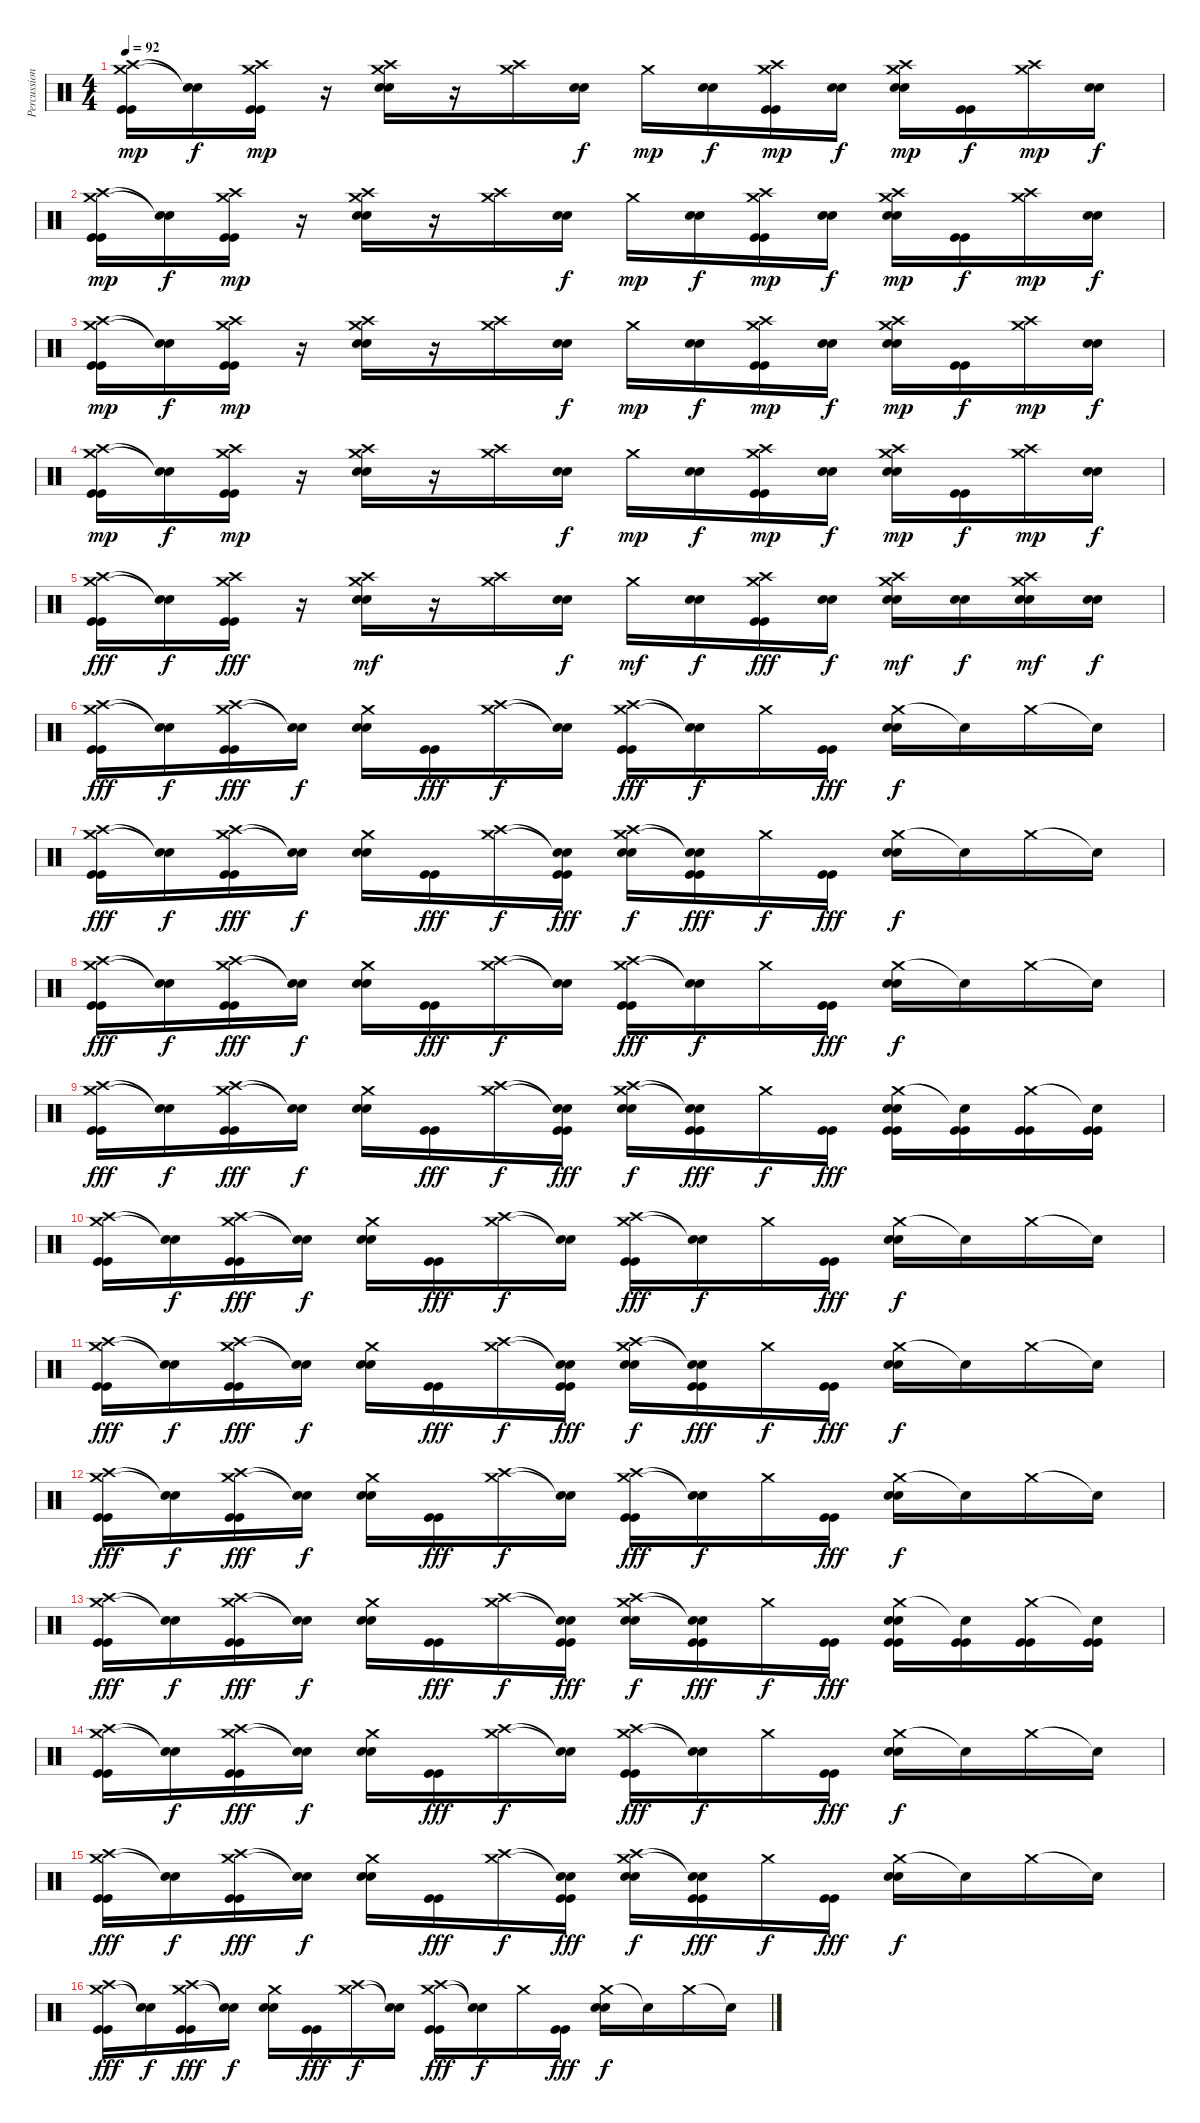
\track ("Percussions" "Percussion") {instrument percussion}
\staff {score}
\articulation defaults
\ts (4 4)
\tempo 92
\clef neutral
\ks c
("Crash medium (hit)" "Crash high (hit)" "Kick (hit)" "Kick (hit)").16{dy mp} ("Snare (hit)"{t} "Snare (hit)"{t}).16{dy f} ("Crash medium (hit)" "Crash high (hit)" "Kick (hit)" "Kick (hit)").16{dy mp} r.16 ("Crash medium (hit)" "Crash high (hit)" "Electric Snare (hit)" "Electric Snare (hit)").16 r.16 ("Crash medium (hit)" "Crash high (hit)").16 ("Electric Snare (hit)" "Electric Snare (hit)").16{dy f} "Crash medium (hit)".16{dy mp} ("Electric Snare (hit)" "Electric Snare (hit)").16{dy f} ("Crash medium (hit)" "Crash high (hit)" "Kick (hit)" "Kick (hit)").16{dy mp} ("Electric Snare (hit)" "Electric Snare (hit)").16{dy f} ("Crash medium (hit)" "Crash high (hit)" "Electric Snare (hit)" "Electric Snare (hit)").16{dy mp} ("Kick (hit)" "Kick (hit)").16{dy f} ("Crash medium (hit)" "Crash high (hit)").16{dy mp} ("Electric Snare (hit)" "Electric Snare (hit)").16{dy f} |
("Crash medium (hit)" "Crash high (hit)" "Kick (hit)" "Kick (hit)").16{dy mp} ("Snare (hit)"{t} "Snare (hit)"{t}).16{dy f} ("Crash medium (hit)" "Crash high (hit)" "Kick (hit)" "Kick (hit)").16{dy mp} r.16 ("Crash medium (hit)" "Crash high (hit)" "Electric Snare (hit)" "Electric Snare (hit)").16 r.16 ("Crash medium (hit)" "Crash high (hit)").16 ("Electric Snare (hit)" "Electric Snare (hit)").16{dy f} "Crash medium (hit)".16{dy mp} ("Electric Snare (hit)" "Electric Snare (hit)").16{dy f} ("Crash medium (hit)" "Crash high (hit)" "Kick (hit)" "Kick (hit)").16{dy mp} ("Electric Snare (hit)" "Electric Snare (hit)").16{dy f} ("Crash medium (hit)" "Crash high (hit)" "Electric Snare (hit)" "Electric Snare (hit)").16{dy mp} ("Kick (hit)" "Kick (hit)").16{dy f} ("Crash medium (hit)" "Crash high (hit)").16{dy mp} ("Electric Snare (hit)" "Electric Snare (hit)").16{dy f} |
("Crash medium (hit)" "Crash high (hit)" "Kick (hit)" "Kick (hit)").16{dy mp} ("Snare (hit)"{t} "Snare (hit)"{t}).16{dy f} ("Crash medium (hit)" "Crash high (hit)" "Kick (hit)" "Kick (hit)").16{dy mp} r.16 ("Crash medium (hit)" "Crash high (hit)" "Electric Snare (hit)" "Electric Snare (hit)").16 r.16 ("Crash medium (hit)" "Crash high (hit)").16 ("Electric Snare (hit)" "Electric Snare (hit)").16{dy f} "Crash medium (hit)".16{dy mp} ("Electric Snare (hit)" "Electric Snare (hit)").16{dy f} ("Crash medium (hit)" "Crash high (hit)" "Kick (hit)" "Kick (hit)").16{dy mp} ("Electric Snare (hit)" "Electric Snare (hit)").16{dy f} ("Crash medium (hit)" "Crash high (hit)" "Electric Snare (hit)" "Electric Snare (hit)").16{dy mp} ("Kick (hit)" "Kick (hit)").16{dy f} ("Crash medium (hit)" "Crash high (hit)").16{dy mp} ("Electric Snare (hit)" "Electric Snare (hit)").16{dy f} |
("Crash medium (hit)" "Crash high (hit)" "Kick (hit)" "Kick (hit)").16{dy mp} ("Snare (hit)"{t} "Snare (hit)"{t}).16{dy f} ("Crash medium (hit)" "Crash high (hit)" "Kick (hit)" "Kick (hit)").16{dy mp} r.16 ("Crash medium (hit)" "Crash high (hit)" "Electric Snare (hit)" "Electric Snare (hit)").16 r.16 ("Crash medium (hit)" "Crash high (hit)").16 ("Electric Snare (hit)" "Electric Snare (hit)").16{dy f} "Crash medium (hit)".16{dy mp} ("Electric Snare (hit)" "Electric Snare (hit)").16{dy f} ("Crash medium (hit)" "Crash high (hit)" "Kick (hit)" "Kick (hit)").16{dy mp} ("Electric Snare (hit)" "Electric Snare (hit)").16{dy f} ("Crash medium (hit)" "Crash high (hit)" "Electric Snare (hit)" "Electric Snare (hit)").16{dy mp} ("Kick (hit)" "Kick (hit)").16{dy f} ("Crash medium (hit)" "Crash high (hit)").16{dy mp} ("Electric Snare (hit)" "Electric Snare (hit)").16{dy f} |
("Crash medium (hit)" "Crash high (hit)" "Kick (hit)" "Kick (hit)").16{dy fff} ("Snare (hit)"{t} "Snare (hit)"{t}).16{dy f} ("Crash medium (hit)" "Crash high (hit)" "Kick (hit)" "Kick (hit)").16{dy fff} r.16 ("Crash medium (hit)" "Crash high (hit)" "Electric Snare (hit)" "Electric Snare (hit)").16{dy mf} r.16 ("Crash medium (hit)" "Crash high (hit)").16 ("Electric Snare (hit)" "Electric Snare (hit)").16{dy f} "Crash medium (hit)".16{dy mf} ("Electric Snare (hit)" "Electric Snare (hit)").16{dy f} ("Crash medium (hit)" "Crash high (hit)" "Kick (hit)" "Kick (hit)").16{dy fff} ("Electric Snare (hit)" "Electric Snare (hit)").16{dy f} ("Crash medium (hit)" "Crash high (hit)" "Electric Snare (hit)" "Electric Snare (hit)").16{dy mf} ("Electric Snare (hit)" "Electric Snare (hit)").16{dy f} ("Crash medium (hit)" "Crash high (hit)" "Electric Snare (hit)" "Electric Snare (hit)").16{dy mf} ("Electric Snare (hit)" "Electric Snare (hit)").16{dy f} |
("Crash medium (hit)" "Crash high (hit)" "Kick (hit)" "Kick (hit)").16{dy fff} ("Snare (hit)"{t} "Snare (hit)"{t}).16{dy f} ("Crash medium (hit)" "Crash high (hit)" "Kick (hit)" "Kick (hit)").16{dy fff} ("Snare (hit)"{t} "Snare (hit)"{t}).16{dy f} ("Crash medium (hit)" "Electric Snare (hit)" "Electric Snare (hit)").16 ("Kick (hit)" "Kick (hit)").16{dy fff} ("Crash medium (hit)" "Crash high (hit)").16{dy f} ("Snare (hit)"{t} "Snare (hit)"{t}).16 ("Crash medium (hit)" "Crash high (hit)" "Kick (hit)" "Kick (hit)").16{dy fff} ("Snare (hit)"{t} "Snare (hit)"{t}).16{dy f} "Crash medium (hit)".16 ("Kick (hit)" "Kick (hit)").16{dy fff} ("Crash medium (hit)" "Electric Snare (hit)" "Electric Snare (hit)").16{dy f} "Snare (hit)"{t}.16 "Crash medium (hit)".16 "Snare (hit)"{t}.16 |
("Crash medium (hit)" "Crash high (hit)" "Kick (hit)" "Kick (hit)").16{dy fff} ("Snare (hit)"{t} "Snare (hit)"{t}).16{dy f} ("Crash medium (hit)" "Crash high (hit)" "Kick (hit)" "Kick (hit)").16{dy fff} ("Snare (hit)"{t} "Snare (hit)"{t}).16{dy f} ("Crash medium (hit)" "Electric Snare (hit)" "Electric Snare (hit)").16 ("Kick (hit)" "Kick (hit)").16{dy fff} ("Crash medium (hit)" "Crash high (hit)").16{dy f} ("Snare (hit)"{t} "Snare (hit)"{t} "Kick (hit)" "Kick (hit)").16{dy fff} ("Crash medium (hit)" "Crash high (hit)" "Electric Snare (hit)" "Electric Snare (hit)").16{dy f} ("Snare (hit)"{t} "Snare (hit)"{t} "Kick (hit)" "Kick (hit)").16{dy fff} "Crash medium (hit)".16{dy f} ("Kick (hit)" "Kick (hit)").16{dy fff} ("Crash medium (hit)" "Electric Snare (hit)" "Electric Snare (hit)").16{dy f} "Snare (hit)"{t}.16 "Crash medium (hit)".16 "Snare (hit)"{t}.16 |
("Crash medium (hit)" "Crash high (hit)" "Kick (hit)" "Kick (hit)").16{dy fff} ("Snare (hit)"{t} "Snare (hit)"{t}).16{dy f} ("Crash medium (hit)" "Crash high (hit)" "Kick (hit)" "Kick (hit)").16{dy fff} ("Snare (hit)"{t} "Snare (hit)"{t}).16{dy f} ("Crash medium (hit)" "Electric Snare (hit)" "Electric Snare (hit)").16 ("Kick (hit)" "Kick (hit)").16{dy fff} ("Crash medium (hit)" "Crash high (hit)").16{dy f} ("Snare (hit)"{t} "Snare (hit)"{t}).16 ("Crash medium (hit)" "Crash high (hit)" "Kick (hit)" "Kick (hit)").16{dy fff} ("Snare (hit)"{t} "Snare (hit)"{t}).16{dy f} "Crash medium (hit)".16 ("Kick (hit)" "Kick (hit)").16{dy fff} ("Crash medium (hit)" "Electric Snare (hit)" "Electric Snare (hit)").16{dy f} "Snare (hit)"{t}.16 "Crash medium (hit)".16 "Snare (hit)"{t}.16 |
("Crash medium (hit)" "Crash high (hit)" "Kick (hit)" "Kick (hit)").16{dy fff} ("Snare (hit)"{t} "Snare (hit)"{t}).16{dy f} ("Crash medium (hit)" "Crash high (hit)" "Kick (hit)" "Kick (hit)").16{dy fff} ("Snare (hit)"{t} "Snare (hit)"{t}).16{dy f} ("Crash medium (hit)" "Electric Snare (hit)" "Electric Snare (hit)").16 ("Kick (hit)" "Kick (hit)").16{dy fff} ("Crash medium (hit)" "Crash high (hit)").16{dy f} ("Snare (hit)"{t} "Snare (hit)"{t} "Kick (hit)" "Kick (hit)").16{dy fff} ("Crash medium (hit)" "Crash high (hit)" "Electric Snare (hit)" "Electric Snare (hit)").16{dy f} ("Snare (hit)"{t} "Snare (hit)"{t} "Kick (hit)" "Kick (hit)").16{dy fff} "Crash medium (hit)".16{dy f} ("Kick (hit)" "Kick (hit)").16{dy fff} ("Crash medium (hit)" "Electric Snare (hit)" "Electric Snare (hit)" "Kick (hit)" "Kick (hit)").16 ("Snare (hit)"{t} "Kick (hit)" "Kick (hit)").16 ("Crash medium (hit)" "Kick (hit)" "Kick (hit)").16 ("Snare (hit)"{t} "Kick (hit)" "Kick (hit)").16 |
("Crash medium (hit)" "Crash high (hit)" "Kick (hit)" "Kick (hit)").16 ("Snare (hit)"{t} "Snare (hit)"{t}).16{dy f} ("Crash medium (hit)" "Crash high (hit)" "Kick (hit)" "Kick (hit)").16{dy fff} ("Snare (hit)"{t} "Snare (hit)"{t}).16{dy f} ("Crash medium (hit)" "Electric Snare (hit)" "Electric Snare (hit)").16 ("Kick (hit)" "Kick (hit)").16{dy fff} ("Crash medium (hit)" "Crash high (hit)").16{dy f} ("Snare (hit)"{t} "Snare (hit)"{t}).16 ("Crash medium (hit)" "Crash high (hit)" "Kick (hit)" "Kick (hit)").16{dy fff} ("Snare (hit)"{t} "Snare (hit)"{t}).16{dy f} "Crash medium (hit)".16 ("Kick (hit)" "Kick (hit)").16{dy fff} ("Crash medium (hit)" "Electric Snare (hit)" "Electric Snare (hit)").16{dy f} "Snare (hit)"{t}.16 "Crash medium (hit)".16 "Snare (hit)"{t}.16 |
("Crash medium (hit)" "Crash high (hit)" "Kick (hit)" "Kick (hit)").16{dy fff} ("Snare (hit)"{t} "Snare (hit)"{t}).16{dy f} ("Crash medium (hit)" "Crash high (hit)" "Kick (hit)" "Kick (hit)").16{dy fff} ("Snare (hit)"{t} "Snare (hit)"{t}).16{dy f} ("Crash medium (hit)" "Electric Snare (hit)" "Electric Snare (hit)").16 ("Kick (hit)" "Kick (hit)").16{dy fff} ("Crash medium (hit)" "Crash high (hit)").16{dy f} ("Snare (hit)"{t} "Snare (hit)"{t} "Kick (hit)" "Kick (hit)").16{dy fff} ("Crash medium (hit)" "Crash high (hit)" "Electric Snare (hit)" "Electric Snare (hit)").16{dy f} ("Snare (hit)"{t} "Snare (hit)"{t} "Kick (hit)" "Kick (hit)").16{dy fff} "Crash medium (hit)".16{dy f} ("Kick (hit)" "Kick (hit)").16{dy fff} ("Crash medium (hit)" "Electric Snare (hit)" "Electric Snare (hit)").16{dy f} "Snare (hit)"{t}.16 "Crash medium (hit)".16 "Snare (hit)"{t}.16 |
("Crash medium (hit)" "Crash high (hit)" "Kick (hit)" "Kick (hit)").16{dy fff} ("Snare (hit)"{t} "Snare (hit)"{t}).16{dy f} ("Crash medium (hit)" "Crash high (hit)" "Kick (hit)" "Kick (hit)").16{dy fff} ("Snare (hit)"{t} "Snare (hit)"{t}).16{dy f} ("Crash medium (hit)" "Electric Snare (hit)" "Electric Snare (hit)").16 ("Kick (hit)" "Kick (hit)").16{dy fff} ("Crash medium (hit)" "Crash high (hit)").16{dy f} ("Snare (hit)"{t} "Snare (hit)"{t}).16 ("Crash medium (hit)" "Crash high (hit)" "Kick (hit)" "Kick (hit)").16{dy fff} ("Snare (hit)"{t} "Snare (hit)"{t}).16{dy f} "Crash medium (hit)".16 ("Kick (hit)" "Kick (hit)").16{dy fff} ("Crash medium (hit)" "Electric Snare (hit)" "Electric Snare (hit)").16{dy f} "Snare (hit)"{t}.16 "Crash medium (hit)".16 "Snare (hit)"{t}.16 |
("Crash medium (hit)" "Crash high (hit)" "Kick (hit)" "Kick (hit)").16{dy fff} ("Snare (hit)"{t} "Snare (hit)"{t}).16{dy f} ("Crash medium (hit)" "Crash high (hit)" "Kick (hit)" "Kick (hit)").16{dy fff} ("Snare (hit)"{t} "Snare (hit)"{t}).16{dy f} ("Crash medium (hit)" "Electric Snare (hit)" "Electric Snare (hit)").16 ("Kick (hit)" "Kick (hit)").16{dy fff} ("Crash medium (hit)" "Crash high (hit)").16{dy f} ("Snare (hit)"{t} "Snare (hit)"{t} "Kick (hit)" "Kick (hit)").16{dy fff} ("Crash medium (hit)" "Crash high (hit)" "Electric Snare (hit)" "Electric Snare (hit)").16{dy f} ("Snare (hit)"{t} "Snare (hit)"{t} "Kick (hit)" "Kick (hit)").16{dy fff} "Crash medium (hit)".16{dy f} ("Kick (hit)" "Kick (hit)").16{dy fff} ("Crash medium (hit)" "Electric Snare (hit)" "Electric Snare (hit)" "Kick (hit)" "Kick (hit)").16 ("Snare (hit)"{t} "Kick (hit)" "Kick (hit)").16 ("Crash medium (hit)" "Kick (hit)" "Kick (hit)").16 ("Snare (hit)"{t} "Kick (hit)" "Kick (hit)").16 |
("Crash medium (hit)" "Crash high (hit)" "Kick (hit)" "Kick (hit)").16 ("Snare (hit)"{t} "Snare (hit)"{t}).16{dy f} ("Crash medium (hit)" "Crash high (hit)" "Kick (hit)" "Kick (hit)").16{dy fff} ("Snare (hit)"{t} "Snare (hit)"{t}).16{dy f} ("Crash medium (hit)" "Electric Snare (hit)" "Electric Snare (hit)").16 ("Kick (hit)" "Kick (hit)").16{dy fff} ("Crash medium (hit)" "Crash high (hit)").16{dy f} ("Snare (hit)"{t} "Snare (hit)"{t}).16 ("Crash medium (hit)" "Crash high (hit)" "Kick (hit)" "Kick (hit)").16{dy fff} ("Snare (hit)"{t} "Snare (hit)"{t}).16{dy f} "Crash medium (hit)".16 ("Kick (hit)" "Kick (hit)").16{dy fff} ("Crash medium (hit)" "Electric Snare (hit)" "Electric Snare (hit)").16{dy f} "Snare (hit)"{t}.16 "Crash medium (hit)".16 "Snare (hit)"{t}.16 |
("Crash medium (hit)" "Crash high (hit)" "Kick (hit)" "Kick (hit)").16{dy fff} ("Snare (hit)"{t} "Snare (hit)"{t}).16{dy f} ("Crash medium (hit)" "Crash high (hit)" "Kick (hit)" "Kick (hit)").16{dy fff} ("Snare (hit)"{t} "Snare (hit)"{t}).16{dy f} ("Crash medium (hit)" "Electric Snare (hit)" "Electric Snare (hit)").16 ("Kick (hit)" "Kick (hit)").16{dy fff} ("Crash medium (hit)" "Crash high (hit)").16{dy f} ("Snare (hit)"{t} "Snare (hit)"{t} "Kick (hit)" "Kick (hit)").16{dy fff} ("Crash medium (hit)" "Crash high (hit)" "Electric Snare (hit)" "Electric Snare (hit)").16{dy f} ("Snare (hit)"{t} "Snare (hit)"{t} "Kick (hit)" "Kick (hit)").16{dy fff} "Crash medium (hit)".16{dy f} ("Kick (hit)" "Kick (hit)").16{dy fff} ("Crash medium (hit)" "Electric Snare (hit)" "Electric Snare (hit)").16{dy f} "Snare (hit)"{t}.16 "Crash medium (hit)".16 "Snare (hit)"{t}.16 |
("Crash medium (hit)" "Crash high (hit)" "Kick (hit)" "Kick (hit)").16{dy fff} ("Snare (hit)"{t} "Snare (hit)"{t}).16{dy f} ("Crash medium (hit)" "Crash high (hit)" "Kick (hit)" "Kick (hit)").16{dy fff} ("Snare (hit)"{t} "Snare (hit)"{t}).16{dy f} ("Crash medium (hit)" "Electric Snare (hit)" "Electric Snare (hit)").16 ("Kick (hit)" "Kick (hit)").16{dy fff} ("Crash medium (hit)" "Crash high (hit)").16{dy f} ("Snare (hit)"{t} "Snare (hit)"{t}).16 ("Crash medium (hit)" "Crash high (hit)" "Kick (hit)" "Kick (hit)").16{dy fff} ("Snare (hit)"{t} "Snare (hit)"{t}).16{dy f} "Crash medium (hit)".16 ("Kick (hit)" "Kick (hit)").16{dy fff} ("Crash medium (hit)" "Electric Snare (hit)" "Electric Snare (hit)").16{dy f} "Snare (hit)"{t}.16 "Crash medium (hit)".16 "Snare (hit)"{t}.16
